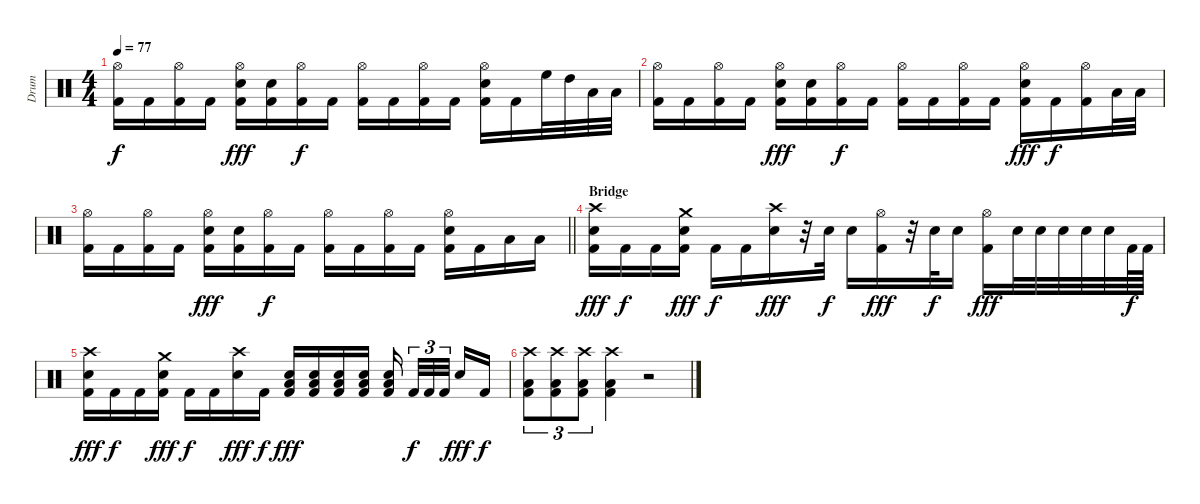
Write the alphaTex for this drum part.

\track ("Drum" "Drum") {instrument percussion}
\staff {score}
\articulation defaults
\ts (4 4)
\tempo 77
\clef neutral
\ks c
("Hi-Hat (open)" "Kick (hit) 2").16{dy f} "Kick (hit) 2".16 ("Hi-Hat (open)" "Kick (hit) 2").16 "Kick (hit) 2".16 ("Hi-Hat (open)" "Electric Snare (hit)" "Kick (hit) 2").16{dy fff} ("Electric Snare (hit)" "Kick (hit) 2").16 ("Hi-Hat (open)" "Kick (hit) 2").16{dy f} "Kick (hit) 2".16 ("Hi-Hat (open)" "Kick (hit) 2").16 "Kick (hit) 2".16 ("Hi-Hat (open)" "Kick (hit) 2").16 "Kick (hit) 2".16 ("Hi-Hat (open)" "Electric Snare (hit)" "Kick (hit) 2").16 "Kick (hit) 2".16 "High Floor Tom (hit)".32 "High Tom (hit)".32 "Low Tom (hit)".32 "Low Floor Tom (hit)".32 |
("Hi-Hat (open)" "Kick (hit) 2").16 "Kick (hit) 2".16 ("Hi-Hat (open)" "Kick (hit) 2").16 "Kick (hit) 2".16 ("Hi-Hat (open)" "Electric Snare (hit)" "Kick (hit) 2").16{dy fff} ("Electric Snare (hit)" "Kick (hit) 2").16 ("Hi-Hat (open)" "Kick (hit) 2").16{dy f} "Kick (hit) 2".16 ("Hi-Hat (open)" "Kick (hit) 2").16 "Kick (hit) 2".16 ("Hi-Hat (open)" "Kick (hit) 2").16 "Kick (hit) 2".16 ("Hi-Hat (open)" "Electric Snare (hit)" "Kick (hit) 2").16{dy fff} "Kick (hit) 2".16{dy f} ("Hi-Hat (open)" "Kick (hit) 2").16 "Low Tom (hit)".32 "Low Floor Tom (hit)".32 |
\barLineRight lightlight
("Hi-Hat (open)" "Kick (hit) 2").16 "Kick (hit) 2".16 ("Hi-Hat (open)" "Kick (hit) 2").16 "Kick (hit) 2".16 ("Hi-Hat (open)" "Electric Snare (hit)" "Kick (hit) 2").16{dy fff} ("Electric Snare (hit)" "Kick (hit) 2").16 ("Hi-Hat (open)" "Kick (hit) 2").16{dy f} "Kick (hit) 2".16 ("Hi-Hat (open)" "Kick (hit) 2").16 "Kick (hit) 2".16 ("Hi-Hat (open)" "Kick (hit) 2").16 "Kick (hit) 2".16 ("Hi-Hat (open)" "Electric Snare (hit)" "Kick (hit) 2").16 "Kick (hit) 2".16 "Low Tom (hit)".16 "Low Floor Tom (hit)".16 |
\section ("" "Bridge")
("Crash high (hit)" "Electric Snare (hit)" "Kick (hit) 2").16{dy fff} "Kick (hit) 2".16{dy f} "Kick (hit) 2".16 ("Crash medium (hit)" "Electric Snare (hit)" "Kick (hit) 2").16{dy fff} "Kick (hit) 2".16{dy f} "Kick (hit) 2".16 ("Crash high (hit)" "Electric Snare (hit)").16{dy fff} r.32 "Electric Snare (hit)".32{dy f} "Electric Snare (hit)".16 ("Hi-Hat (open)" "Kick (hit) 2").16{dy fff} r.32 "Electric Snare (hit)".32{dy f} "Electric Snare (hit)".16 ("Hi-Hat (open)" "Kick (hit) 2").16{dy fff} "Electric Snare (hit)".32 "Electric Snare (hit)".32 "Electric Snare (hit)".32 "Electric Snare (hit)".32 "Electric Snare (hit)".32 "Kick (hit) 2".64{dy f} "Kick (hit) 2".64 |
("Crash high (hit)" "Electric Snare (hit)" "Kick (hit) 2").16{dy fff} "Kick (hit) 2".16{dy f} "Kick (hit) 2".16 ("Crash medium (hit)" "Electric Snare (hit)" "Kick (hit) 2").16{dy fff} "Kick (hit) 2".16{dy f} "Kick (hit) 2".16 ("Crash high (hit)" "Electric Snare (hit)").16{dy fff} "Kick (hit) 2".16{dy f} ("Low Floor Tom (hit)" "Electric Snare (hit)" "Kick (hit) 2").16{dy fff} ("Low Floor Tom (hit)" "Electric Snare (hit)" "Kick (hit) 2").16 ("Low Floor Tom (hit)" "Electric Snare (hit)" "Kick (hit) 2").16 ("Low Floor Tom (hit)" "Electric Snare (hit)" "Kick (hit) 2").16 ("Low Floor Tom (hit)" "Electric Snare (hit)" "Kick (hit) 2").16{beam splitsecondary} "Kick (hit) 2".32{tu (3 2) dy f} "Kick (hit) 2".32{tu (3 2)} "Kick (hit) 2".32{tu (3 2) beam splitsecondary} "Electric Snare (hit)".16{dy fff} "Kick (hit) 2".16{dy f} |
("Crash high (hit)" "Low Tom (hit)" "Kick (hit) 2").8{tu (3 2)} ("Crash high (hit)" "Low Tom (hit)" "Kick (hit) 2").8{tu (3 2)} ("Crash high (hit)" "Low Tom (hit)" "Kick (hit) 2").8{tu (3 2) beam merge} ("Crash high (hit)" "Low Tom (hit)" "Kick (hit) 2").4 r.2
